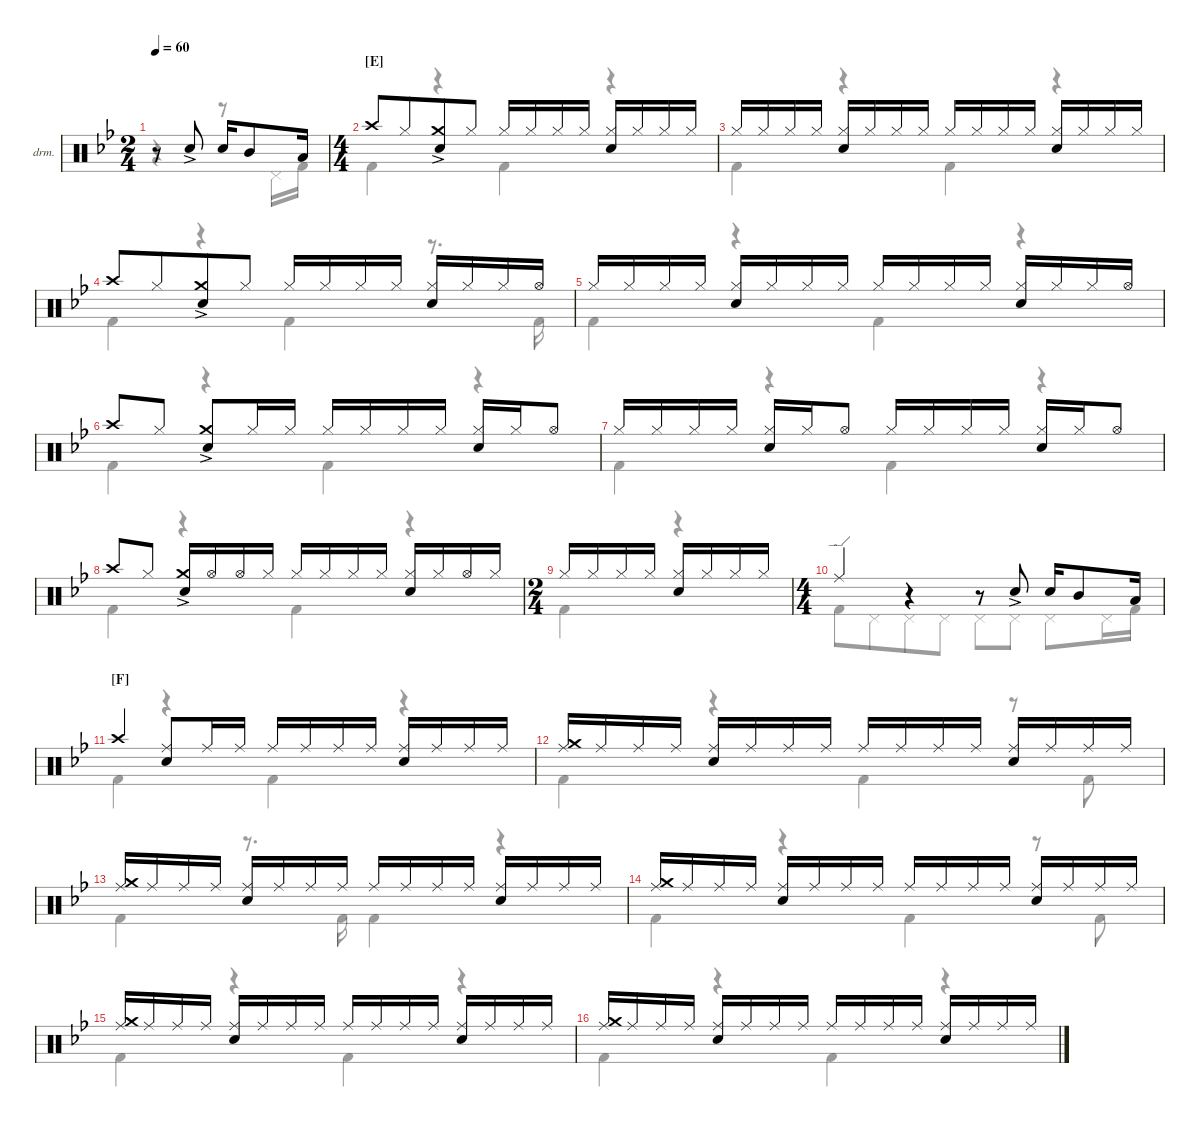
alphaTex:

\defaultSystemsLayout 4
\hideDynamics
\bracketExtendMode nobrackets
\firstSystemTrackNameOrientation horizontal
\otherSystemsTrackNameOrientation horizontal
\track ("Drumkit" "drm.") {instrument percussion}
\staff {score}
\articulation defaults
\voice
\ts (2 4)
\beaming (8 2 2)
\tempo 60
\clef neutral
\ks bb
r.8{dy mf beam Up} "Snare (hit) 2"{ac acc forcenatural}.8{beam Up} "Snare (hit) 2"{acc forcenatural}.16{beam Up} "Mid Tom (hit)"{acc forcenatural}.8{beam Up} "Low Tom (hit)"{acc forcenatural}.16{dy ff beam Up} |
\ts (4 4)
\beaming (8 2 2 2 2)
\section ("E" "")
"Crash high (hit)"{acc forcenatural}.8{dy mf beam Up} "Hi-Hat (closed)"{acc forcenatural}.8{beam Up beam merge} ("Crash medium (hit)"{ac acc forcenatural} "Snare (hit) 2"{acc forcenatural}).8{beam Up} "Hi-Hat (closed)"{acc forcenatural}.8{beam Up} "Hi-Hat (closed)"{acc forcenatural}.16{beam Up} "Hi-Hat (closed)"{acc forcenatural}.16{dy mp beam Up} "Hi-Hat (closed)"{acc forcenatural}.16{dy mf beam Up} "Hi-Hat (closed)"{acc forcenatural}.16{dy mp beam Up} ("Hi-Hat (closed)"{acc forcenatural} "Snare (hit) 2"{acc forcenatural}).16{dy mf beam Up} "Hi-Hat (closed)"{acc forcenatural}.16{dy mp beam Up} "Hi-Hat (closed)"{acc forcenatural}.16{dy mf beam Up} "Hi-Hat (closed)"{acc forcenatural}.16{dy mp beam Up} |
"Hi-Hat (closed)"{acc forcenatural}.16{dy mf beam Up} "Hi-Hat (closed)"{acc forcenatural}.16{dy mp beam Up} "Hi-Hat (closed)"{acc forcenatural}.16{dy mf beam Up} "Hi-Hat (closed)"{acc forcenatural}.16{dy mp beam Up} ("Hi-Hat (closed)"{acc forcenatural} "Snare (hit) 2"{acc forcenatural}).16{dy mf beam Up} "Hi-Hat (closed)"{acc forcenatural}.16{dy mp beam Up} "Hi-Hat (closed)"{acc forcenatural}.16{dy mf beam Up} "Hi-Hat (closed)"{acc forcenatural}.16{dy mp beam Up} "Hi-Hat (closed)"{acc forcenatural}.16{dy mf beam Up} "Hi-Hat (closed)"{acc forcenatural}.16{dy mp beam Up} "Hi-Hat (closed)"{acc forcenatural}.16{dy mf beam Up} "Hi-Hat (closed)"{acc forcenatural}.16{dy mp beam Up} ("Hi-Hat (closed)"{acc forcenatural} "Snare (hit) 2"{acc forcenatural}).16{dy mf beam Up} "Hi-Hat (closed)"{acc forcenatural}.16{dy mp beam Up} "Hi-Hat (closed)"{acc forcenatural}.16{dy mf beam Up} "Hi-Hat (closed)"{acc forcenatural}.16{dy mp beam Up} |
"Crash high (hit)"{acc forcenatural}.8{dy mf beam Up} "Hi-Hat (closed)"{acc forcenatural}.8{beam Up beam merge} ("Crash medium (hit)"{ac acc forcenatural} "Snare (hit) 2"{acc forcenatural}).8{beam Up} "Hi-Hat (closed)"{acc forcenatural}.8{beam Up} "Hi-Hat (closed)"{acc forcenatural}.16{beam Up} "Hi-Hat (closed)"{acc forcenatural}.16{dy mp beam Up} "Hi-Hat (closed)"{acc forcenatural}.16{dy mf beam Up} "Hi-Hat (closed)"{acc forcenatural}.16{dy mp beam Up} ("Hi-Hat (closed)"{acc forcenatural} "Snare (hit) 2"{acc forcenatural}).16{dy mf beam Up} "Hi-Hat (closed)"{acc forcenatural}.16{dy mp beam Up} "Hi-Hat (closed)"{acc forcenatural}.16{dy mf beam Up} "Hi-Hat (open)"{acc forcenatural}.16{beam Up} |
"Hi-Hat (closed)"{acc forcenatural}.16{beam Up} "Hi-Hat (closed)"{acc forcenatural}.16{dy mp beam Up} "Hi-Hat (closed)"{acc forcenatural}.16{dy mf beam Up} "Hi-Hat (closed)"{acc forcenatural}.16{dy mp beam Up} ("Hi-Hat (closed)"{acc forcenatural} "Snare (hit) 2"{acc forcenatural}).16{dy mf beam Up} "Hi-Hat (closed)"{acc forcenatural}.16{dy mp beam Up} "Hi-Hat (closed)"{acc forcenatural}.16{dy mf beam Up} "Hi-Hat (closed)"{acc forcenatural}.16{dy mp beam Up} "Hi-Hat (closed)"{acc forcenatural}.16{dy mf beam Up} "Hi-Hat (closed)"{acc forcenatural}.16{dy mp beam Up} "Hi-Hat (closed)"{acc forcenatural}.16{dy mf beam Up} "Hi-Hat (closed)"{acc forcenatural}.16{dy mp beam Up} ("Hi-Hat (closed)"{acc forcenatural} "Snare (hit) 2"{acc forcenatural}).16{dy mf beam Up} "Hi-Hat (closed)"{acc forcenatural}.16{dy mp beam Up} "Hi-Hat (closed)"{acc forcenatural}.16{dy mf beam Up} "Hi-Hat (open)"{acc forcenatural}.16{beam Up} |
"Crash high (hit)"{acc forcenatural}.8{beam Up} "Hi-Hat (closed)"{acc forcenatural}.8{beam Up beam split} ("Crash medium (hit)"{ac acc forcenatural} "Snare (hit) 2"{acc forcenatural}).8{beam Up} "Hi-Hat (closed)"{acc forcenatural}.16{beam Up} "Hi-Hat (closed)"{acc forcenatural}.16{beam Up} "Hi-Hat (closed)"{acc forcenatural}.16{beam Up} "Hi-Hat (closed)"{acc forcenatural}.16{dy mp beam Up} "Hi-Hat (closed)"{acc forcenatural}.16{dy mf beam Up} "Hi-Hat (closed)"{acc forcenatural}.16{dy mp beam Up} ("Hi-Hat (closed)"{acc forcenatural} "Snare (hit) 2"{acc forcenatural}).16{dy mf beam Up} "Hi-Hat (closed)"{acc forcenatural}.16{dy mp beam Up} "Hi-Hat (open)"{acc forcenatural}.8{dy mf beam Up} |
"Hi-Hat (closed)"{acc forcenatural}.16{beam Up} "Hi-Hat (closed)"{acc forcenatural}.16{dy mp beam Up} "Hi-Hat (closed)"{acc forcenatural}.16{dy mf beam Up} "Hi-Hat (closed)"{acc forcenatural}.16{dy mp beam Up} ("Hi-Hat (closed)"{acc forcenatural} "Snare (hit) 2"{acc forcenatural}).16{dy mf beam Up} "Hi-Hat (closed)"{acc forcenatural}.16{dy mp beam Up} "Hi-Hat (open)"{acc forcenatural}.8{dy mf beam Up} "Hi-Hat (closed)"{acc forcenatural}.16{beam Up} "Hi-Hat (closed)"{acc forcenatural}.16{dy mp beam Up} "Hi-Hat (closed)"{acc forcenatural}.16{dy mf beam Up} "Hi-Hat (closed)"{acc forcenatural}.16{dy mp beam Up} ("Hi-Hat (closed)"{acc forcenatural} "Snare (hit) 2"{acc forcenatural}).16{dy mf beam Up} "Hi-Hat (closed)"{acc forcenatural}.16{dy mp beam Up} "Hi-Hat (open)"{acc forcenatural}.8{dy mf beam Up} |
"Crash high (hit)"{acc forcenatural}.8{beam Up} "Hi-Hat (closed)"{acc forcenatural}.8{beam Up beam split} ("Crash medium (hit)"{ac acc forcenatural} "Snare (hit) 2"{acc forcenatural}).16{beam Up} "Hi-Hat (open)"{acc forcenatural}.16{beam Up} "Hi-Hat (open)"{acc forcenatural}.16{beam Up} "Hi-Hat (closed)"{acc forcenatural}.16{beam Up} "Hi-Hat (closed)"{acc forcenatural}.16{beam Up} "Hi-Hat (closed)"{acc forcenatural}.16{dy mp beam Up} "Hi-Hat (closed)"{acc forcenatural}.16{dy mf beam Up} "Hi-Hat (closed)"{acc forcenatural}.16{dy mp beam Up} ("Hi-Hat (closed)"{acc forcenatural} "Snare (hit) 2"{acc forcenatural}).16{dy mf beam Up} "Hi-Hat (closed)"{acc forcenatural}.16{dy mp beam Up} "Hi-Hat (open)"{acc forcenatural}.16{dy mf beam Up} "Hi-Hat (closed)"{acc forcenatural}.16{beam Up} |
\ts (2 4)
\beaming (8 2 2)
"Hi-Hat (closed)"{acc forcenatural}.16{beam Up} "Hi-Hat (closed)"{acc forcenatural}.16{dy mp beam Up} "Hi-Hat (closed)"{acc forcenatural}.16{dy mf beam Up} "Hi-Hat (closed)"{acc forcenatural}.16{dy mp beam Up} ("Hi-Hat (closed)"{acc forcenatural} "Snare (hit) 2"{acc forcenatural}).16{dy mf beam Up} "Hi-Hat (closed)"{acc forcenatural}.16{dy mp beam Up} "Hi-Hat (closed)"{acc forcenatural}.16{dy mf beam Up} "Hi-Hat (closed)"{acc forcenatural}.16{dy mp beam Up} |
\ts (4 4)
\beaming (8 2 2 2 2)
"Ride (edge)"{acc forcenatural}.4{dy mf beam Up} r.4{beam Up} r.8{beam Up} "Snare (hit) 2"{ac acc forcenatural}.8{beam Up} "Snare (hit) 2"{acc forcenatural}.16{beam Up} "Mid Tom (hit)"{acc forcenatural}.8{beam Up} "Low Tom (hit)"{acc forcenatural}.16{dy ff beam Up} |
\section ("F" "")
"Crash high (hit)"{acc forcenatural}.4{dy mf beam Up} ("Ride (middle)"{acc forcenatural} "Snare (hit) 2"{acc forcenatural}).8{beam Up} "Ride (middle)"{acc forcenatural}.16{beam Up} "Ride (middle)"{acc forcenatural}.16{dy mp beam Up} "Ride (middle)"{acc forcenatural}.16{dy mf beam Up} "Ride (middle)"{acc forcenatural}.16{dy mp beam Up} "Ride (middle)"{acc forcenatural}.16{dy mf beam Up} "Ride (middle)"{acc forcenatural}.16{dy mp beam Up} ("Ride (middle)"{acc forcenatural} "Snare (hit) 2"{acc forcenatural}).16{dy mf beam Up} "Ride (middle)"{acc forcenatural}.16{dy mp beam Up} "Ride (middle)"{acc forcenatural}.16{beam Up} "Ride (middle)"{acc forcenatural}.16{dy mf beam Up} |
("Crash medium (hit)"{acc forcenatural} "Ride (middle)"{acc forcenatural}).16{beam Up} "Ride (middle)"{acc forcenatural}.16{dy mp beam Up} "Ride (middle)"{acc forcenatural}.16{dy mf beam Up} "Ride (middle)"{acc forcenatural}.16{dy mp beam Up} ("Ride (middle)"{acc forcenatural} "Snare (hit) 2"{acc forcenatural}).16{dy mf beam Up} "Ride (middle)"{acc forcenatural}.16{dy mp beam Up} "Ride (middle)"{acc forcenatural}.16{beam Up} "Ride (middle)"{acc forcenatural}.16{dy mf beam Up} "Ride (middle)"{acc forcenatural}.16{beam Up} "Ride (middle)"{acc forcenatural}.16{dy mp beam Up} "Ride (middle)"{acc forcenatural}.16{dy mf beam Up} "Ride (middle)"{acc forcenatural}.16{dy mp beam Up} ("Ride (middle)"{acc forcenatural} "Snare (hit) 2"{acc forcenatural}).16{dy mf beam Up} "Ride (middle)"{acc forcenatural}.16{dy mp beam Up} "Ride (middle)"{acc forcenatural}.16{beam Up} "Ride (middle)"{acc forcenatural}.16{dy mf beam Up} |
("Ride (middle)"{acc forcenatural} "Crash medium (hit)"{acc forcenatural}).16{beam Up} "Ride (middle)"{acc forcenatural}.16{dy mp beam Up} "Ride (middle)"{acc forcenatural}.16{dy mf beam Up} "Ride (middle)"{acc forcenatural}.16{dy mp beam Up} ("Ride (middle)"{acc forcenatural} "Snare (hit) 2"{acc forcenatural}).16{dy mf beam Up} "Ride (middle)"{acc forcenatural}.16{dy mp beam Up} "Ride (middle)"{acc forcenatural}.16{beam Up} "Ride (middle)"{acc forcenatural}.16{dy mf beam Up} "Ride (middle)"{acc forcenatural}.16{beam Up} "Ride (middle)"{acc forcenatural}.16{dy mp beam Up} "Ride (middle)"{acc forcenatural}.16{dy mf beam Up} "Ride (middle)"{acc forcenatural}.16{dy mp beam Up} ("Ride (middle)"{acc forcenatural} "Snare (hit) 2"{acc forcenatural}).16{dy mf beam Up} "Ride (middle)"{acc forcenatural}.16{dy mp beam Up} "Ride (middle)"{acc forcenatural}.16{beam Up} "Ride (middle)"{acc forcenatural}.16{dy mf beam Up} |
("Crash medium (hit)"{acc forcenatural} "Ride (middle)"{acc forcenatural}).16{beam Up} "Ride (middle)"{acc forcenatural}.16{dy mp beam Up} "Ride (middle)"{acc forcenatural}.16{dy mf beam Up} "Ride (middle)"{acc forcenatural}.16{dy mp beam Up} ("Ride (middle)"{acc forcenatural} "Snare (hit) 2"{acc forcenatural}).16{dy mf beam Up} "Ride (middle)"{acc forcenatural}.16{dy mp beam Up} "Ride (middle)"{acc forcenatural}.16{beam Up} "Ride (middle)"{acc forcenatural}.16{dy mf beam Up} "Ride (middle)"{acc forcenatural}.16{beam Up} "Ride (middle)"{acc forcenatural}.16{dy mp beam Up} "Ride (middle)"{acc forcenatural}.16{dy mf beam Up} "Ride (middle)"{acc forcenatural}.16{dy mp beam Up} ("Ride (middle)"{acc forcenatural} "Snare (hit) 2"{acc forcenatural}).16{dy mf beam Up} "Ride (middle)"{acc forcenatural}.16{dy mp beam Up} "Ride (middle)"{acc forcenatural}.16{beam Up} "Ride (middle)"{acc forcenatural}.16{dy mf beam Up} |
("Crash medium (hit)"{acc forcenatural} "Ride (middle)"{acc forcenatural}).16{beam Up} "Ride (middle)"{acc forcenatural}.16{dy mp beam Up} "Ride (middle)"{acc forcenatural}.16{dy mf beam Up} "Ride (middle)"{acc forcenatural}.16{dy mp beam Up} ("Ride (middle)"{acc forcenatural} "Snare (hit) 2"{acc forcenatural}).16{dy mf beam Up} "Ride (middle)"{acc forcenatural}.16{dy mp beam Up} "Ride (middle)"{acc forcenatural}.16{beam Up} "Ride (middle)"{acc forcenatural}.16{dy mf beam Up} "Ride (middle)"{acc forcenatural}.16{beam Up} "Ride (middle)"{acc forcenatural}.16{dy mp beam Up} "Ride (middle)"{acc forcenatural}.16{dy mf beam Up} "Ride (middle)"{acc forcenatural}.16{dy mp beam Up} ("Ride (middle)"{acc forcenatural} "Snare (hit) 2"{acc forcenatural}).16{dy mf beam Up} "Ride (middle)"{acc forcenatural}.16{dy mp beam Up} "Ride (middle)"{acc forcenatural}.16{beam Up} "Ride (middle)"{acc forcenatural}.16{dy mf beam Up} |
("Crash medium (hit)"{acc forcenatural} "Ride (middle)"{acc forcenatural}).16{beam Up} "Ride (middle)"{acc forcenatural}.16{dy mp beam Up} "Ride (middle)"{acc forcenatural}.16{dy mf beam Up} "Ride (middle)"{acc forcenatural}.16{dy mp beam Up} ("Ride (middle)"{acc forcenatural} "Snare (hit) 2"{acc forcenatural}).16{dy mf beam Up} "Ride (middle)"{acc forcenatural}.16{dy mp beam Up} "Ride (middle)"{acc forcenatural}.16{beam Up} "Ride (middle)"{acc forcenatural}.16{dy mf beam Up} "Ride (middle)"{acc forcenatural}.16{beam Up} "Ride (middle)"{acc forcenatural}.16{dy mp beam Up} "Ride (middle)"{acc forcenatural}.16{dy mf beam Up} "Ride (middle)"{acc forcenatural}.16{dy mp beam Up} ("Ride (middle)"{acc forcenatural} "Snare (hit) 2"{acc forcenatural}).16{dy mf beam Up} "Ride (middle)"{acc forcenatural}.16{dy mp beam Up} "Ride (middle)"{acc forcenatural}.16{beam Up} "Ride (middle)"{acc forcenatural}.16{dy mf beam Up}
\voice
\clef neutral
\ottava regular
\simile none
\ks bb
r.4{dy mf beam Down} r.8{beam Down} "Pedal Hi-Hat (hit)"{acc forcenatural}.16{beam Down} "Kick (hit) 2"{acc forcenatural}.16{beam Down} |
"Kick (hit) 2"{acc forcenatural}.4{beam Down} r.4{beam Down} "Kick (hit) 2"{acc forcenatural}.4{beam Down} r.4{beam Down} |
"Kick (hit) 2"{acc forcenatural}.4{beam Down} r.4{beam Down} "Kick (hit) 2"{acc forcenatural}.4{beam Down} r.4{beam Down} |
"Kick (hit) 2"{acc forcenatural}.4{beam Down} r.4{beam Down} "Kick (hit) 2"{acc forcenatural}.4{beam Down} r.8{d beam Down} "Kick (hit) 2"{acc forcenatural}.16{beam Down} |
"Kick (hit) 2"{acc forcenatural}.4{beam Down} r.4{beam Down} "Kick (hit) 2"{acc forcenatural}.4{beam Down} r.4{beam Down} |
"Kick (hit) 2"{acc forcenatural}.4{beam Down} r.4{beam Down} "Kick (hit) 2"{acc forcenatural}.4{beam Down} r.4{beam Down} |
"Kick (hit) 2"{acc forcenatural}.4{beam Down} r.4{beam Down} "Kick (hit) 2"{acc forcenatural}.4{beam Down} r.4{beam Down} |
"Kick (hit) 2"{acc forcenatural}.4{beam Down} r.4{beam Down} "Kick (hit) 2"{acc forcenatural}.4{beam Down} r.4{beam Down} |
"Kick (hit) 2"{acc forcenatural}.4{beam Down} r.4{beam Down} |
"Kick (hit) 2"{acc forcenatural}.8{beam Down} "Pedal Hi-Hat (hit)"{acc forcenatural}.8{beam Down beam merge} "Pedal Hi-Hat (hit)"{acc forcenatural}.8{beam Down} "Pedal Hi-Hat (hit)"{acc forcenatural}.8{beam Down} "Pedal Hi-Hat (hit)"{acc forcenatural}.8{beam Down} "Pedal Hi-Hat (hit)"{acc forcenatural}.8{beam Down} "Pedal Hi-Hat (hit)"{acc forcenatural}.8{beam Down} "Pedal Hi-Hat (hit)"{acc forcenatural}.16{beam Down} "Kick (hit) 2"{acc forcenatural}.16{beam Down} |
"Kick (hit) 2"{acc forcenatural}.4{beam Down} r.4{beam Down} "Kick (hit) 2"{acc forcenatural}.4{beam Down} r.4{beam Down} |
"Kick (hit) 2"{acc forcenatural}.4{beam Down} r.4{beam Down} "Kick (hit) 2"{acc forcenatural}.4{beam Down} r.8{beam Down} "Kick (hit) 2"{acc forcenatural}.8{beam Down} |
"Kick (hit) 2"{acc forcenatural}.4{beam Down} r.8{d beam Down} "Kick (hit) 2"{acc forcenatural}.16{beam Down} "Kick (hit) 2"{acc forcenatural}.4{beam Down} r.4{beam Down} |
"Kick (hit) 2"{acc forcenatural}.4{beam Down} r.4{beam Down} "Kick (hit) 2"{acc forcenatural}.4{beam Down} r.8{beam Down} "Kick (hit) 2"{acc forcenatural}.8{beam Down} |
"Kick (hit) 2"{acc forcenatural}.4{beam Down} r.4{beam Down} "Kick (hit) 2"{acc forcenatural}.4{beam Down} r.4{beam Down} |
"Kick (hit) 2"{acc forcenatural}.4{beam Down} r.4{beam Down} "Kick (hit) 2"{acc forcenatural}.4{beam Down} r.4{beam Down}
